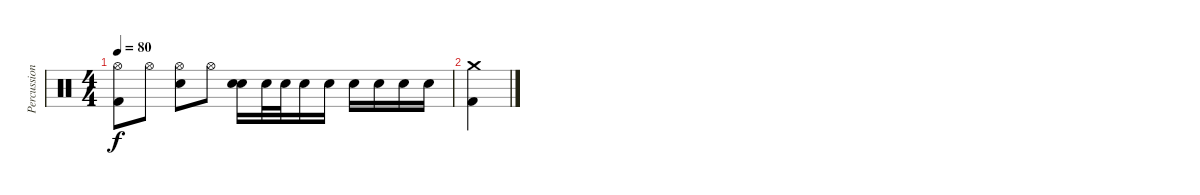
\track ("Percussioni" "Percussion") {instrument percussion}
\staff {score}
\articulation defaults
\ts (4 4)
\tempo 80
\clef neutral
\ks c
("Hi-Hat (open)" "Kick (hit) 2").8{dy f} "Hi-Hat (open)".8 ("Hi-Hat (open)" "Electric Snare (hit)").8 "Hi-Hat (open)".8 ("Electric Snare (hit)" "Electric Snare (hit)").16 "Electric Snare (hit)".32 "Electric Snare (hit)".32 "Electric Snare (hit)".16 "Electric Snare (hit)".16 "Electric Snare (hit)".16 "Electric Snare (hit)".16 "Electric Snare (hit)".16 "Electric Snare (hit)".16 |
("Crash medium (hit)" "Kick (hit) 2").4
